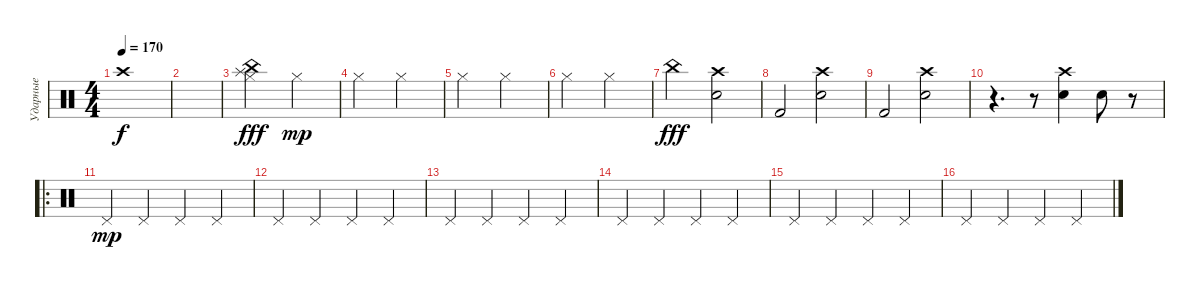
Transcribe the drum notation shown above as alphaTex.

\track ("Ударные" "Ударные") {instrument percussion}
\staff {score}
\articulation defaults
\ts (4 4)
\tempo 170
\clef neutral
\ks c "Crash high (hit)".1{dy f}
|
|
("Hi-Hat (closed)" "Splash (hit)" "China (hit)").2{dy fff} "Hi-Hat (closed)".2{dy mp} |
"Hi-Hat (closed)".2 "Hi-Hat (closed)".2 |
"Hi-Hat (closed)".2 "Hi-Hat (closed)".2 |
"Hi-Hat (closed)".2 "Hi-Hat (closed)".2 |
"China (hit)".2{dy fff} ("Electric Snare (hit)" "Crash high (hit)").2 |
"Kick (hit) 2".2 ("Electric Snare (hit)" "Crash high (hit)").2 |
"Kick (hit) 2".2 ("Electric Snare (hit)" "Crash high (hit)").2 |
r.4{d} r.8 ("Electric Snare (hit)" "Crash high (hit)").4 "Electric Snare (hit)".8 r.8 |
\ro "Pedal Hi-Hat (hit)".4{dy mp} "Pedal Hi-Hat (hit)".4 "Pedal Hi-Hat (hit)".4 "Pedal Hi-Hat (hit)".4
|
"Pedal Hi-Hat (hit)".4 "Pedal Hi-Hat (hit)".4 "Pedal Hi-Hat (hit)".4 "Pedal Hi-Hat (hit)".4 |
"Pedal Hi-Hat (hit)".4 "Pedal Hi-Hat (hit)".4 "Pedal Hi-Hat (hit)".4 "Pedal Hi-Hat (hit)".4 |
"Pedal Hi-Hat (hit)".4 "Pedal Hi-Hat (hit)".4 "Pedal Hi-Hat (hit)".4 "Pedal Hi-Hat (hit)".4 |
"Pedal Hi-Hat (hit)".4 "Pedal Hi-Hat (hit)".4 "Pedal Hi-Hat (hit)".4 "Pedal Hi-Hat (hit)".4 |
"Pedal Hi-Hat (hit)".4 "Pedal Hi-Hat (hit)".4 "Pedal Hi-Hat (hit)".4 "Pedal Hi-Hat (hit)".4
